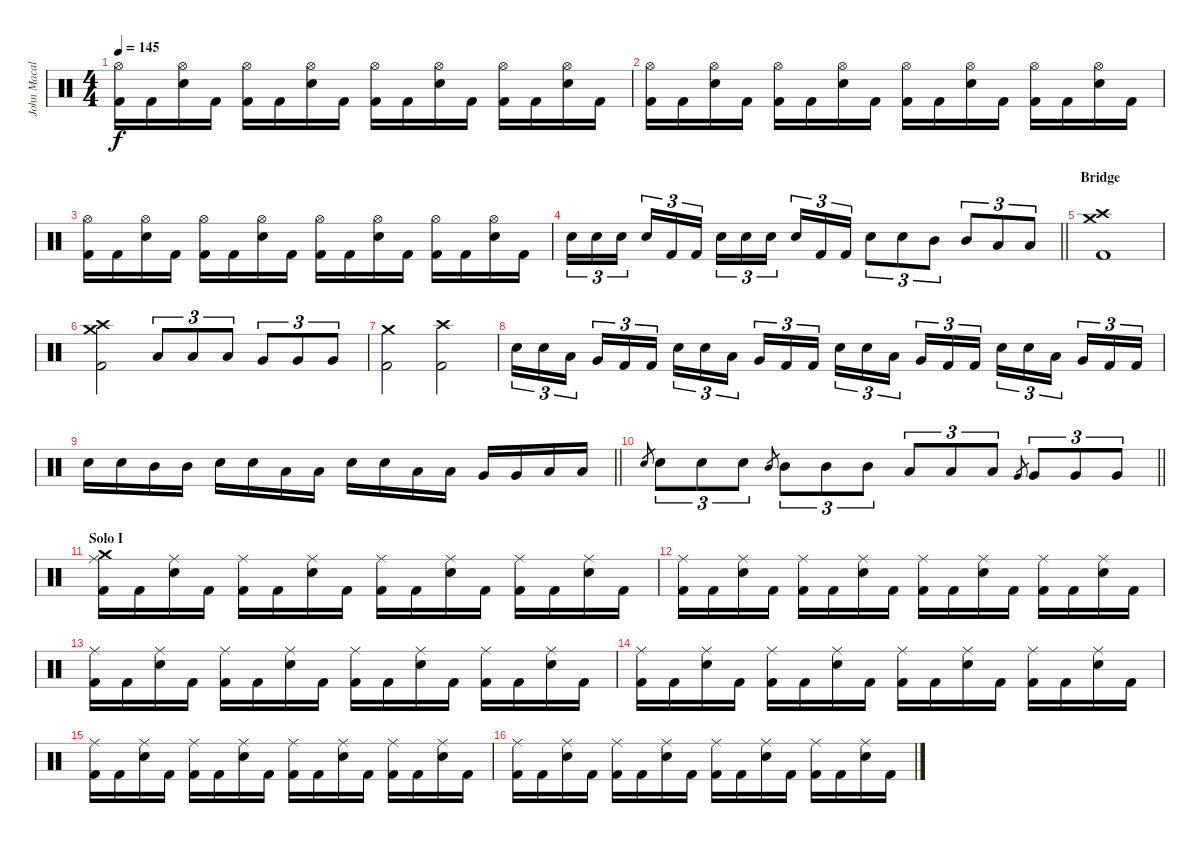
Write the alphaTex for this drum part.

\track ("John Macaluso" "John Macal") {instrument percussion}
\staff {score}
\articulation defaults
\ts (4 4)
\tempo 145
\clef neutral
\ks c
("Hi-Hat (open)" "Kick (hit) 2").16{dy f} "Kick (hit) 2".16 ("Hi-Hat (open)" "Snare (hit) 2").16 "Kick (hit) 2".16 ("Hi-Hat (open)" "Kick (hit) 2").16 "Kick (hit) 2".16 ("Hi-Hat (open)" "Snare (hit) 2").16 "Kick (hit) 2".16 ("Hi-Hat (open)" "Kick (hit) 2").16 "Kick (hit) 2".16 ("Hi-Hat (open)" "Snare (hit) 2").16 "Kick (hit) 2".16 ("Hi-Hat (open)" "Kick (hit) 2").16 "Kick (hit) 2".16 ("Hi-Hat (open)" "Snare (hit) 2").16 "Kick (hit) 2".16 |
("Hi-Hat (open)" "Kick (hit) 2").16 "Kick (hit) 2".16 ("Hi-Hat (open)" "Snare (hit) 2").16 "Kick (hit) 2".16 ("Hi-Hat (open)" "Kick (hit) 2").16 "Kick (hit) 2".16 ("Hi-Hat (open)" "Snare (hit) 2").16 "Kick (hit) 2".16 ("Hi-Hat (open)" "Kick (hit) 2").16 "Kick (hit) 2".16 ("Hi-Hat (open)" "Snare (hit) 2").16 "Kick (hit) 2".16 ("Hi-Hat (open)" "Kick (hit) 2").16 "Kick (hit) 2".16 ("Hi-Hat (open)" "Snare (hit) 2").16 "Kick (hit) 2".16 |
("Hi-Hat (open)" "Kick (hit) 2").16 "Kick (hit) 2".16 ("Hi-Hat (open)" "Snare (hit) 2").16 "Kick (hit) 2".16 ("Hi-Hat (open)" "Kick (hit) 2").16 "Kick (hit) 2".16 ("Hi-Hat (open)" "Snare (hit) 2").16 "Kick (hit) 2".16 ("Hi-Hat (open)" "Kick (hit) 2").16 "Kick (hit) 2".16 ("Hi-Hat (open)" "Snare (hit) 2").16 "Kick (hit) 2".16 ("Hi-Hat (open)" "Kick (hit) 2").16 "Kick (hit) 2".16 ("Hi-Hat (open)" "Snare (hit) 2").16 "Kick (hit) 2".16 |
\barLineRight lightlight "Snare (hit) 2".16{tu (3 2)} "Snare (hit) 2".16{tu (3 2)} "Snare (hit) 2".16{tu (3 2) beam splitsecondary} "Snare (hit) 2".16{tu (3 2)} "Kick (hit) 2".16{tu (3 2)} "Kick (hit) 2".16{tu (3 2)} "Snare (hit) 2".16{tu (3 2)} "Snare (hit) 2".16{tu (3 2)} "Snare (hit) 2".16{tu (3 2) beam splitsecondary} "Snare (hit) 2".16{tu (3 2)} "Kick (hit) 2".16{tu (3 2)} "Kick (hit) 2".16{tu (3 2)} "Snare (hit) 2".8{tu (3 2)} "Snare (hit) 2".8{tu (3 2)} "Mid Tom (hit)".8{tu (3 2)} "Mid Tom (hit)".8{tu (3 2)} "Low Tom (hit)".8{tu (3 2)} "Low Tom (hit)".8{tu (3 2)}
|
\section ("" "Bridge")
("Crash medium (hit)" "Crash high (hit)" "Kick (hit) 2").1 |
("Crash medium (hit)" "Crash high (hit)" "Kick (hit) 2").2 "Low Tom (hit)".8{tu (3 2)} "Low Tom (hit)".8{tu (3 2)} "Low Tom (hit)".8{tu (3 2)} "Very Low Tom (hit)".8{tu (3 2)} "Very Low Tom (hit)".8{tu (3 2)} "Very Low Tom (hit)".8{tu (3 2)} |
("Crash medium (hit)" "Kick (hit) 2").2 ("Crash high (hit)" "Kick (hit) 2").2 |
"Snare (hit) 2".16{tu (3 2)} "Snare (hit) 2".16{tu (3 2)} "Low Tom (hit)".16{tu (3 2) beam splitsecondary} "Very Low Tom (hit)".16{tu (3 2)} "Kick (hit) 2".16{tu (3 2)} "Kick (hit) 2".16{tu (3 2)} "Snare (hit) 2".16{tu (3 2)} "Snare (hit) 2".16{tu (3 2)} "Low Tom (hit)".16{tu (3 2) beam splitsecondary} "Very Low Tom (hit)".16{tu (3 2)} "Kick (hit) 2".16{tu (3 2)} "Kick (hit) 2".16{tu (3 2)} "Snare (hit) 2".16{tu (3 2)} "Snare (hit) 2".16{tu (3 2)} "Low Tom (hit)".16{tu (3 2) beam splitsecondary} "Very Low Tom (hit)".16{tu (3 2)} "Kick (hit) 2".16{tu (3 2)} "Kick (hit) 2".16{tu (3 2)} "Snare (hit) 2".16{tu (3 2)} "Snare (hit) 2".16{tu (3 2)} "Low Tom (hit)".16{tu (3 2) beam splitsecondary} "Very Low Tom (hit)".16{tu (3 2)} "Kick (hit) 2".16{tu (3 2)} "Kick (hit) 2".16{tu (3 2)} |
\barLineRight lightlight "Snare (hit) 2".16 "Snare (hit) 2".16 "Mid Tom (hit)".16 "Mid Tom (hit)".16 "Snare (hit) 2".16 "Snare (hit) 2".16 "Low Tom (hit)".16 "Low Tom (hit)".16 "Snare (hit) 2".16 "Snare (hit) 2".16 "Low Tom (hit)".16 "Low Tom (hit)".16 "Very Low Tom (hit)".16 "Very Low Tom (hit)".16 "Low Floor Tom (hit)".16 "Low Floor Tom (hit)".16
|
\barLineRight lightlight "Snare (hit) 2".8{gr} "Snare (hit) 2".8{tu (3 2)} "Snare (hit) 2".8{tu (3 2)} "Snare (hit) 2".8{tu (3 2)} "Mid Tom (hit)".8{gr} "Mid Tom (hit)".8{tu (3 2)} "Mid Tom (hit)".8{tu (3 2)} "Mid Tom (hit)".8{tu (3 2)} "Low Tom (hit)".8{tu (3 2)} "Low Tom (hit)".8{tu (3 2)} "Low Tom (hit)".8{tu (3 2)} "Very Low Tom (hit)".8{gr} "Very Low Tom (hit)".8{tu (3 2)} "Very Low Tom (hit)".8{tu (3 2)} "Very Low Tom (hit)".8{tu (3 2)}
|
\section ("" "Solo I")
("Crash medium (hit)" "Ride (middle)" "Kick (hit) 2").16 "Kick (hit) 2".16 ("Ride (middle)" "Snare (hit) 2").16 "Kick (hit) 2".16 ("Ride (middle)" "Kick (hit) 2").16 "Kick (hit) 2".16 ("Ride (middle)" "Snare (hit) 2").16 "Kick (hit) 2".16 ("Ride (middle)" "Kick (hit) 2").16 "Kick (hit) 2".16 ("Ride (middle)" "Snare (hit) 2").16 "Kick (hit) 2".16 ("Ride (middle)" "Kick (hit) 2").16 "Kick (hit) 2".16 ("Ride (middle)" "Snare (hit) 2").16 "Kick (hit) 2".16 |
("Ride (middle)" "Kick (hit) 2").16 "Kick (hit) 2".16 ("Ride (middle)" "Snare (hit) 2").16 "Kick (hit) 2".16 ("Ride (middle)" "Kick (hit) 2").16 "Kick (hit) 2".16 ("Ride (middle)" "Snare (hit) 2").16 "Kick (hit) 2".16 ("Ride (middle)" "Kick (hit) 2").16 "Kick (hit) 2".16 ("Ride (middle)" "Snare (hit) 2").16 "Kick (hit) 2".16 ("Ride (middle)" "Kick (hit) 2").16 "Kick (hit) 2".16 ("Ride (middle)" "Snare (hit) 2").16 "Kick (hit) 2".16 |
("Ride (middle)" "Kick (hit) 2").16 "Kick (hit) 2".16 ("Ride (middle)" "Snare (hit) 2").16 "Kick (hit) 2".16 ("Ride (middle)" "Kick (hit) 2").16 "Kick (hit) 2".16 ("Ride (middle)" "Snare (hit) 2").16 "Kick (hit) 2".16 ("Ride (middle)" "Kick (hit) 2").16 "Kick (hit) 2".16 ("Ride (middle)" "Snare (hit) 2").16 "Kick (hit) 2".16 ("Ride (middle)" "Kick (hit) 2").16 "Kick (hit) 2".16 ("Ride (middle)" "Snare (hit) 2").16 "Kick (hit) 2".16 |
("Ride (middle)" "Kick (hit) 2").16 "Kick (hit) 2".16 ("Ride (middle)" "Snare (hit) 2").16 "Kick (hit) 2".16 ("Ride (middle)" "Kick (hit) 2").16 "Kick (hit) 2".16 ("Ride (middle)" "Snare (hit) 2").16 "Kick (hit) 2".16 ("Ride (middle)" "Kick (hit) 2").16 "Kick (hit) 2".16 ("Ride (middle)" "Snare (hit) 2").16 "Kick (hit) 2".16 ("Ride (middle)" "Kick (hit) 2").16 "Kick (hit) 2".16 ("Ride (middle)" "Snare (hit) 2").16 "Kick (hit) 2".16 |
("Ride (middle)" "Kick (hit) 2").16 "Kick (hit) 2".16 ("Ride (middle)" "Snare (hit) 2").16 "Kick (hit) 2".16 ("Ride (middle)" "Kick (hit) 2").16 "Kick (hit) 2".16 ("Ride (middle)" "Snare (hit) 2").16 "Kick (hit) 2".16 ("Ride (middle)" "Kick (hit) 2").16 "Kick (hit) 2".16 ("Ride (middle)" "Snare (hit) 2").16 "Kick (hit) 2".16 ("Ride (middle)" "Kick (hit) 2").16 "Kick (hit) 2".16 ("Ride (middle)" "Snare (hit) 2").16 "Kick (hit) 2".16 |
("Ride (middle)" "Kick (hit) 2").16 "Kick (hit) 2".16 ("Ride (middle)" "Snare (hit) 2").16 "Kick (hit) 2".16 ("Ride (middle)" "Kick (hit) 2").16 "Kick (hit) 2".16 ("Ride (middle)" "Snare (hit) 2").16 "Kick (hit) 2".16 ("Ride (middle)" "Kick (hit) 2").16 "Kick (hit) 2".16 ("Ride (middle)" "Snare (hit) 2").16 "Kick (hit) 2".16 ("Ride (middle)" "Kick (hit) 2").16 "Kick (hit) 2".16 ("Ride (middle)" "Snare (hit) 2").16 "Kick (hit) 2".16
